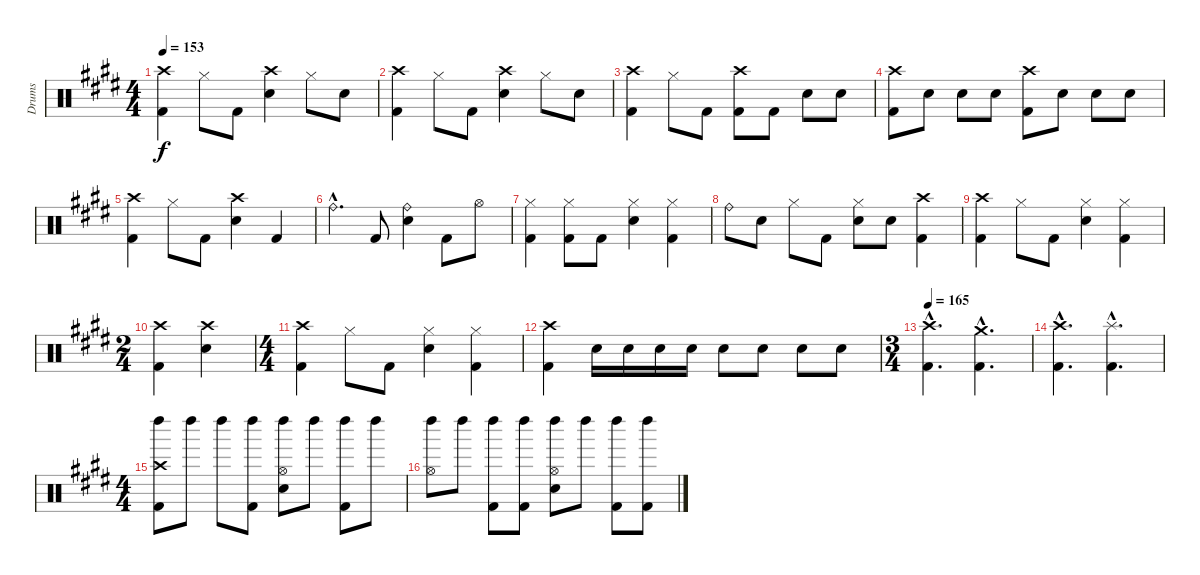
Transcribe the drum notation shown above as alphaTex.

\track ("Drums" "Drums") {instrument percussion}
\staff {score}
\articulation defaults
\ts (4 4)
\tempo 153
\clef neutral
\ks e
("Kick (hit) 2" "Crash high (hit)").4{dy f} "Hi-Hat (closed)".8 "Kick (hit) 2".8 ("Electric Snare (hit)" "Crash high (hit)").4 "Hi-Hat (closed)".8 "Electric Snare (hit)".8 |
("Kick (hit) 2" "Crash high (hit)").4 "Hi-Hat (closed)".8 "Kick (hit) 2".8 ("Electric Snare (hit)" "Crash high (hit)").4 "Hi-Hat (closed)".8 "Electric Snare (hit)".8 |
("Kick (hit) 2" "Crash high (hit)").4 "Hi-Hat (closed)".8 "Kick (hit) 2".8 ("Kick (hit) 2" "Crash high (hit)").8 "Kick (hit) 2".8 "Electric Snare (hit)".8 "Electric Snare (hit)".8 |
("Kick (hit) 2" "Crash high (hit)").8 "Electric Snare (hit)".8 "Electric Snare (hit)".8 "Electric Snare (hit)".8 ("Kick (hit) 2" "Crash high (hit)").8 "Electric Snare (hit)".8 "Electric Snare (hit)".8 "Electric Snare (hit)".8 |
("Kick (hit) 2" "Crash high (hit)").4 "Hi-Hat (closed)".8 "Kick (hit) 2".8 ("Crash high (hit)" "Electric Snare (hit)").4 "Kick (hit) 2".4 |
"Ride (bell)"{hac}.4{d} "Kick (hit) 2".8 ("Electric Snare (hit)" "Ride (bell)").4 "Kick (hit) 2".8 "Hi-Hat (open)".8 |
("Kick (hit) 2" "Hi-Hat (closed)").4 ("Kick (hit) 2" "Hi-Hat (closed)").8 "Kick (hit) 2".8 ("Electric Snare (hit)" "Hi-Hat (closed)").4 ("Kick (hit) 2" "Hi-Hat (closed)").4 |
"Ride (bell)".8 "Electric Snare (hit)".8 "Hi-Hat (closed)".8 "Kick (hit) 2".8 ("Electric Snare (hit)" "Hi-Hat (closed)").8 "Electric Snare (hit)".8 ("Kick (hit) 2" "Crash high (hit)").4 |
("Crash high (hit)" "Kick (hit) 2").4 "Hi-Hat (closed)".8 "Kick (hit) 2".8 ("Electric Snare (hit)" "Hi-Hat (closed)").4 ("Kick (hit) 2" "Hi-Hat (closed)").4 |
\ts (2 4)
("Crash high (hit)" "Kick (hit) 2").4 ("Crash high (hit)" "Electric Snare (hit)").4 |
\ts (4 4)
("Kick (hit) 2" "Crash high (hit)").4 "Hi-Hat (closed)".8 "Kick (hit) 2".8 ("Electric Snare (hit)" "Hi-Hat (closed)").4 ("Kick (hit) 2" "Hi-Hat (closed)").4 |
("Kick (hit) 2" "Crash high (hit)").4 "Electric Snare (hit)".16 "Electric Snare (hit)".16 "Electric Snare (hit)".16 "Electric Snare (hit)".16 "Electric Snare (hit)".8 "Electric Snare (hit)".8 "Electric Snare (hit)".8 "Electric Snare (hit)".8 |
\ts (3 4)
\tempo 165
("Crash high (hit)"{hac} "Kick (hit) 2"{hac}).4{d} ("Crash medium (hit)"{hac} "Kick (hit) 2"{hac}).4{d} |
("Crash high (hit)"{hac} "Kick (hit) 2"{hac}).4{d} ("Splash (hit)"{hac} "Kick (hit) 2"{hac}).4{d} |
\ts (4 4)
("Kick (hit) 2" "Crash high (hit)" "Left Maraca (hit)").8 "Left Maraca (hit)".8 "Left Maraca (hit)".8 ("Kick (hit) 2" "Left Maraca (hit)").8 ("Electric Snare (hit)" "Hi-Hat (open)" "Left Maraca (hit)").8 "Left Maraca (hit)".8 ("Kick (hit) 2" "Left Maraca (hit)").8 "Left Maraca (hit)".8 |
("Hi-Hat (open)" "Left Maraca (hit)").8 "Left Maraca (hit)".8 ("Kick (hit) 2" "Left Maraca (hit)").8 ("Kick (hit) 2" "Left Maraca (hit)").8 ("Electric Snare (hit)" "Hi-Hat (open)" "Left Maraca (hit)").8 "Left Maraca (hit)".8 ("Kick (hit) 2" "Left Maraca (hit)").8 ("Kick (hit) 2" "Left Maraca (hit)").8
